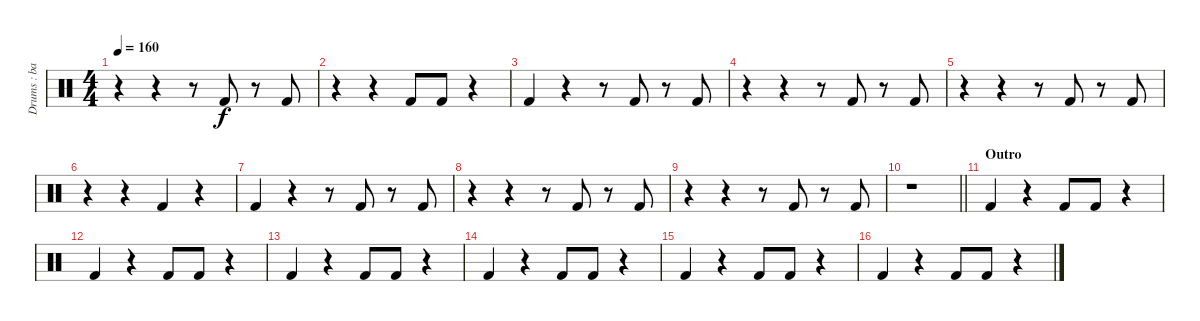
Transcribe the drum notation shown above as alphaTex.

\track ("Drums : bass drums" "Drums : ba") {instrument percussion}
\staff {score}
\articulation defaults
\ts (4 4)
\tempo 160
\clef neutral
\ks c
r.4{dy f} r.4 r.8 "Kick (hit) 2".8 r.8 "Kick (hit) 2".8 |
r.4 r.4 "Kick (hit) 2".8 "Kick (hit) 2".8 r.4 |
"Kick (hit) 2".4 r.4 r.8 "Kick (hit) 2".8 r.8 "Kick (hit) 2".8 |
r.4 r.4 r.8 "Kick (hit) 2".8 r.8 "Kick (hit) 2".8 |
r.4 r.4 r.8 "Kick (hit) 2".8 r.8 "Kick (hit) 2".8 |
r.4 r.4 "Kick (hit) 2".4 r.4 |
"Kick (hit) 2".4 r.4 r.8 "Kick (hit) 2".8 r.8 "Kick (hit) 2".8 |
r.4 r.4 r.8 "Kick (hit) 2".8 r.8 "Kick (hit) 2".8 |
r.4 r.4 r.8 "Kick (hit) 2".8 r.8 "Kick (hit) 2".8 |
\barLineRight lightlight
r.1 |
\section ("" "Outro")
"Kick (hit) 2".4 r.4 "Kick (hit) 2".8 "Kick (hit) 2".8 r.4 |
"Kick (hit) 2".4 r.4 "Kick (hit) 2".8 "Kick (hit) 2".8 r.4 |
"Kick (hit) 2".4 r.4 "Kick (hit) 2".8 "Kick (hit) 2".8 r.4 |
"Kick (hit) 2".4 r.4 "Kick (hit) 2".8 "Kick (hit) 2".8 r.4 |
"Kick (hit) 2".4 r.4 "Kick (hit) 2".8 "Kick (hit) 2".8 r.4 |
"Kick (hit) 2".4 r.4 "Kick (hit) 2".8 "Kick (hit) 2".8 r.4
